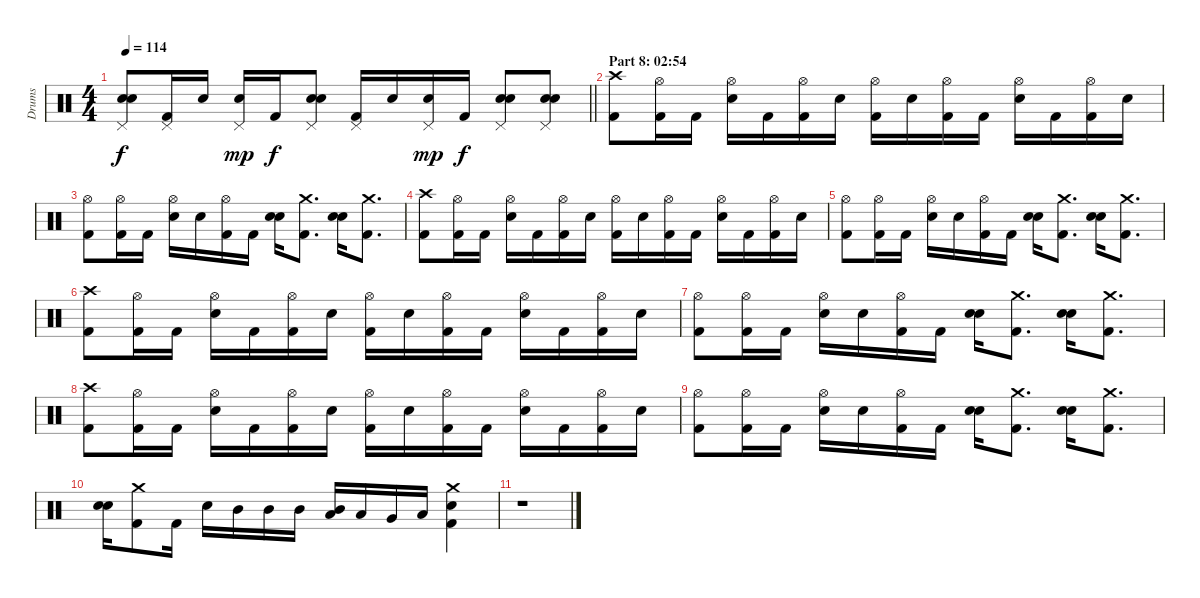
\track ("Drums" "Drums") {instrument percussion}
\staff {score}
\articulation defaults
\ts (4 4)
\tempo 114
\clef neutral
\barLineRight lightlight
\ks c
("Pedal Hi-Hat (hit)" "Electric Snare (hit)" "Electric Snare (hit)").8{bu 60 dy f} ("Pedal Hi-Hat (hit)" "Kick (hit) 2").16 "Electric Snare (hit)".16 ("Pedal Hi-Hat (hit)" "Electric Snare (hit)").16{dy mp} "Kick (hit) 2".16{dy f} ("Pedal Hi-Hat (hit)" "Electric Snare (hit)" "Electric Snare (hit)").8{bu 60} ("Pedal Hi-Hat (hit)" "Kick (hit) 2").16 "Electric Snare (hit)".16 ("Pedal Hi-Hat (hit)" "Electric Snare (hit)").16{dy mp} "Kick (hit) 2".16{dy f} ("Pedal Hi-Hat (hit)" "Electric Snare (hit)" "Electric Snare (hit)").8{bu 60} ("Pedal Hi-Hat (hit)" "Electric Snare (hit)" "Electric Snare (hit)").8{bu 60} |
\section ("" "Part 8: 02:54")
("Crash high (hit)" "Kick (hit) 2").8 ("Hi-Hat (open)" "Kick (hit) 2").16 "Kick (hit) 2".16 ("Hi-Hat (open)" "Electric Snare (hit)").16 "Kick (hit) 2".16 ("Hi-Hat (open)" "Kick (hit) 2").16 "Electric Snare (hit)".16 ("Hi-Hat (open)" "Kick (hit) 2").16 "Electric Snare (hit)".16 ("Hi-Hat (open)" "Kick (hit) 2").16 "Kick (hit) 2".16 ("Hi-Hat (open)" "Electric Snare (hit)").16 "Kick (hit) 2".16 ("Hi-Hat (open)" "Kick (hit) 2").16 "Electric Snare (hit)".16 |
("Hi-Hat (open)" "Kick (hit) 2").8 ("Hi-Hat (open)" "Kick (hit) 2").16 "Kick (hit) 2".16 ("Hi-Hat (open)" "Electric Snare (hit)").16 "Electric Snare (hit)".16 ("Hi-Hat (open)" "Kick (hit) 2").16 "Kick (hit) 2".16 ("Electric Snare (hit)" "Electric Snare (hit)").16{bd 120} ("Crash medium (hit)" "Kick (hit) 2").8{d} ("Electric Snare (hit)" "Electric Snare (hit)").16{bd 120} ("Crash medium (hit)" "Kick (hit) 2").8{d} |
("Crash high (hit)" "Kick (hit) 2").8 ("Hi-Hat (open)" "Kick (hit) 2").16 "Kick (hit) 2".16 ("Hi-Hat (open)" "Electric Snare (hit)").16 "Kick (hit) 2".16 ("Hi-Hat (open)" "Kick (hit) 2").16 "Electric Snare (hit)".16 ("Hi-Hat (open)" "Kick (hit) 2").16 "Electric Snare (hit)".16 ("Hi-Hat (open)" "Kick (hit) 2").16 "Kick (hit) 2".16 ("Hi-Hat (open)" "Electric Snare (hit)").16 "Kick (hit) 2".16 ("Hi-Hat (open)" "Kick (hit) 2").16 "Electric Snare (hit)".16 |
("Hi-Hat (open)" "Kick (hit) 2").8 ("Hi-Hat (open)" "Kick (hit) 2").16 "Kick (hit) 2".16 ("Hi-Hat (open)" "Electric Snare (hit)").16 "Electric Snare (hit)".16 ("Hi-Hat (open)" "Kick (hit) 2").16 "Kick (hit) 2".16 ("Electric Snare (hit)" "Electric Snare (hit)").16{bd 120} ("Crash medium (hit)" "Kick (hit) 2").8{d} ("Electric Snare (hit)" "Electric Snare (hit)").16{bd 120} ("Crash medium (hit)" "Kick (hit) 2").8{d} |
("Crash high (hit)" "Kick (hit) 2").8 ("Hi-Hat (open)" "Kick (hit) 2").16 "Kick (hit) 2".16 ("Hi-Hat (open)" "Electric Snare (hit)").16 "Kick (hit) 2".16 ("Hi-Hat (open)" "Kick (hit) 2").16 "Electric Snare (hit)".16 ("Hi-Hat (open)" "Kick (hit) 2").16 "Electric Snare (hit)".16 ("Hi-Hat (open)" "Kick (hit) 2").16 "Kick (hit) 2".16 ("Hi-Hat (open)" "Electric Snare (hit)").16 "Kick (hit) 2".16 ("Hi-Hat (open)" "Kick (hit) 2").16 "Electric Snare (hit)".16 |
("Hi-Hat (open)" "Kick (hit) 2").8 ("Hi-Hat (open)" "Kick (hit) 2").16 "Kick (hit) 2".16 ("Hi-Hat (open)" "Electric Snare (hit)").16 "Electric Snare (hit)".16 ("Hi-Hat (open)" "Kick (hit) 2").16 "Kick (hit) 2".16 ("Electric Snare (hit)" "Electric Snare (hit)").16{bd 120} ("Crash medium (hit)" "Kick (hit) 2").8{d} ("Electric Snare (hit)" "Electric Snare (hit)").16{bd 120} ("Crash medium (hit)" "Kick (hit) 2").8{d} |
("Crash high (hit)" "Kick (hit) 2").8 ("Hi-Hat (open)" "Kick (hit) 2").16 "Kick (hit) 2".16 ("Hi-Hat (open)" "Electric Snare (hit)").16 "Kick (hit) 2".16 ("Hi-Hat (open)" "Kick (hit) 2").16 "Electric Snare (hit)".16 ("Hi-Hat (open)" "Kick (hit) 2").16 "Electric Snare (hit)".16 ("Hi-Hat (open)" "Kick (hit) 2").16 "Kick (hit) 2".16 ("Hi-Hat (open)" "Electric Snare (hit)").16 "Kick (hit) 2".16 ("Hi-Hat (open)" "Kick (hit) 2").16 "Electric Snare (hit)".16 |
("Hi-Hat (open)" "Kick (hit) 2").8 ("Hi-Hat (open)" "Kick (hit) 2").16 "Kick (hit) 2".16 ("Hi-Hat (open)" "Electric Snare (hit)").16 "Electric Snare (hit)".16 ("Hi-Hat (open)" "Kick (hit) 2").16 "Kick (hit) 2".16 ("Electric Snare (hit)" "Electric Snare (hit)").16{bd 120} ("Crash medium (hit)" "Kick (hit) 2").8{d} ("Electric Snare (hit)" "Electric Snare (hit)").16{bd 120} ("Crash medium (hit)" "Kick (hit) 2").8{d} |
("Electric Snare (hit)" "Electric Snare (hit)").16{bd 120} ("Crash medium (hit)" "Kick (hit) 2").8 "Kick (hit) 2".16 "Electric Snare (hit)".16 "Mid Tom (hit)".16 "Mid Tom (hit)".16 "Mid Tom (hit)".16 ("Mid Tom (hit)" "Low Tom (hit)").16{bu 120} "Low Tom (hit)".16 "Very Low Tom (hit)".16 "Low Floor Tom (hit)".16 ("Crash medium (hit)" "Electric Snare (hit)" "Kick (hit) 2").4 |
r.1
